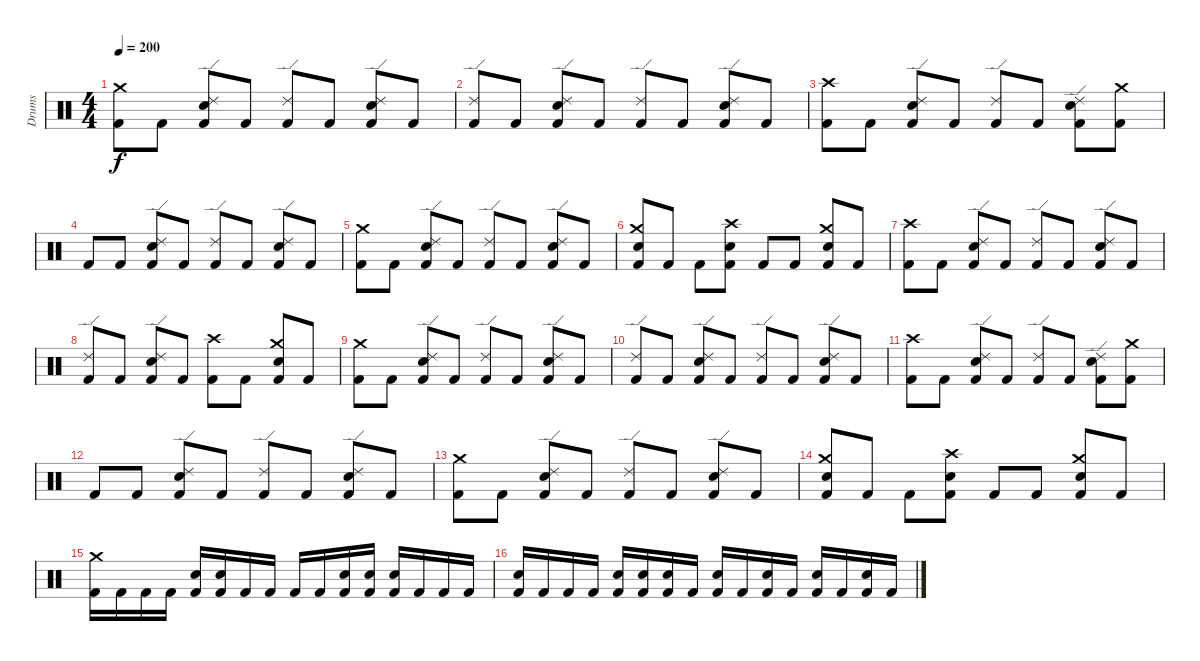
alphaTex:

\track ("Drums" "Drums") {instrument percussion}
\staff {score}
\articulation defaults
\ts (4 4)
\tempo 200
\clef neutral
\ks c
("Kick (hit) 2" "Crash medium (hit)").8{dy f} "Kick (hit) 2".8 ("Kick (hit) 2" "Electric Snare (hit)" "Ride (edge) 2").8 "Kick (hit) 2".8 ("Kick (hit) 2" "Ride (edge) 2").8 "Kick (hit) 2".8 ("Kick (hit) 2" "Electric Snare (hit)" "Ride (edge) 2").8 "Kick (hit) 2".8 |
("Kick (hit) 2" "Ride (edge) 2").8 "Kick (hit) 2".8 ("Kick (hit) 2" "Electric Snare (hit)" "Ride (edge) 2").8 "Kick (hit) 2".8 ("Kick (hit) 2" "Ride (edge) 2").8 "Kick (hit) 2".8 ("Kick (hit) 2" "Electric Snare (hit)" "Ride (edge) 2").8 "Kick (hit) 2".8 |
("Kick (hit) 2" "Crash high (hit)").8 "Kick (hit) 2".8 ("Kick (hit) 2" "Electric Snare (hit)" "Ride (edge) 2").8 "Kick (hit) 2".8 ("Kick (hit) 2" "Ride (edge) 2").8 "Kick (hit) 2".8 ("Kick (hit) 2" "Electric Snare (hit)" "Ride (edge) 2").8 ("Kick (hit) 2" "Crash medium (hit)").8 |
"Kick (hit) 2".8 "Kick (hit) 2".8 ("Kick (hit) 2" "Electric Snare (hit)" "Ride (edge) 2").8 "Kick (hit) 2".8 ("Kick (hit) 2" "Ride (edge) 2").8 "Kick (hit) 2".8 ("Kick (hit) 2" "Electric Snare (hit)" "Ride (edge) 2").8 "Kick (hit) 2".8 |
("Kick (hit) 2" "Crash medium (hit)").8 "Kick (hit) 2".8 ("Kick (hit) 2" "Electric Snare (hit)" "Ride (edge) 2").8 "Kick (hit) 2".8 ("Kick (hit) 2" "Ride (edge) 2").8 "Kick (hit) 2".8 ("Kick (hit) 2" "Electric Snare (hit)" "Ride (edge) 2").8 "Kick (hit) 2".8 |
("Kick (hit) 2" "Electric Snare (hit)" "Crash medium (hit)").8 "Kick (hit) 2".8 "Kick (hit) 2".8 ("Kick (hit) 2" "Electric Snare (hit)" "Crash high (hit)").8 "Kick (hit) 2".8 "Kick (hit) 2".8 ("Kick (hit) 2" "Electric Snare (hit)" "Crash medium (hit)").8 "Kick (hit) 2".8 |
\section ("" "")
("Kick (hit) 2" "Crash high (hit)").8 "Kick (hit) 2".8 ("Kick (hit) 2" "Electric Snare (hit)" "Ride (edge) 2").8 "Kick (hit) 2".8 ("Kick (hit) 2" "Ride (edge) 2").8 "Kick (hit) 2".8 ("Kick (hit) 2" "Electric Snare (hit)" "Ride (edge) 2").8 "Kick (hit) 2".8 |
("Kick (hit) 2" "Ride (edge) 2").8 "Kick (hit) 2".8 ("Kick (hit) 2" "Electric Snare (hit)" "Ride (edge) 2").8 "Kick (hit) 2".8 ("Kick (hit) 2" "Crash high (hit)").8 "Kick (hit) 2".8 ("Kick (hit) 2" "Electric Snare (hit)" "Crash medium (hit)").8 "Kick (hit) 2".8 |
("Kick (hit) 2" "Crash medium (hit)").8 "Kick (hit) 2".8 ("Kick (hit) 2" "Electric Snare (hit)" "Ride (edge) 2").8 "Kick (hit) 2".8 ("Kick (hit) 2" "Ride (edge) 2").8 "Kick (hit) 2".8 ("Kick (hit) 2" "Electric Snare (hit)" "Ride (edge) 2").8 "Kick (hit) 2".8 |
("Kick (hit) 2" "Ride (edge) 2").8 "Kick (hit) 2".8 ("Kick (hit) 2" "Electric Snare (hit)" "Ride (edge) 2").8 "Kick (hit) 2".8 ("Kick (hit) 2" "Ride (edge) 2").8 "Kick (hit) 2".8 ("Kick (hit) 2" "Electric Snare (hit)" "Ride (edge) 2").8 "Kick (hit) 2".8 |
("Kick (hit) 2" "Crash high (hit)").8 "Kick (hit) 2".8 ("Kick (hit) 2" "Electric Snare (hit)" "Ride (edge) 2").8 "Kick (hit) 2".8 ("Kick (hit) 2" "Ride (edge) 2").8 "Kick (hit) 2".8 ("Kick (hit) 2" "Electric Snare (hit)" "Ride (edge) 2").8 ("Kick (hit) 2" "Crash medium (hit)").8 |
"Kick (hit) 2".8 "Kick (hit) 2".8 ("Kick (hit) 2" "Electric Snare (hit)" "Ride (edge) 2").8 "Kick (hit) 2".8 ("Kick (hit) 2" "Ride (edge) 2").8 "Kick (hit) 2".8 ("Kick (hit) 2" "Electric Snare (hit)" "Ride (edge) 2").8 "Kick (hit) 2".8 |
("Kick (hit) 2" "Crash medium (hit)").8 "Kick (hit) 2".8 ("Kick (hit) 2" "Electric Snare (hit)" "Ride (edge) 2").8 "Kick (hit) 2".8 ("Kick (hit) 2" "Ride (edge) 2").8 "Kick (hit) 2".8 ("Kick (hit) 2" "Electric Snare (hit)" "Ride (edge) 2").8 "Kick (hit) 2".8 |
("Kick (hit) 2" "Electric Snare (hit)" "Crash medium (hit)").8 "Kick (hit) 2".8 "Kick (hit) 2".8 ("Kick (hit) 2" "Electric Snare (hit)" "Crash high (hit)").8 "Kick (hit) 2".8 "Kick (hit) 2".8 ("Kick (hit) 2" "Electric Snare (hit)" "Crash medium (hit)").8 "Kick (hit) 2".8 |
("Kick (hit) 2" "Crash medium (hit)").16 "Kick (hit) 2".16 "Kick (hit) 2".16 "Kick (hit) 2".16 ("Kick (hit) 2" "Electric Snare (hit)").16 ("Kick (hit) 2" "Electric Snare (hit)").16 "Kick (hit) 2".16 "Kick (hit) 2".16 "Kick (hit) 2".16 "Kick (hit) 2".16 ("Kick (hit) 2" "Electric Snare (hit)").16 ("Kick (hit) 2" "Electric Snare (hit)").16 ("Kick (hit) 2" "Electric Snare (hit)").16 "Kick (hit) 2".16 "Kick (hit) 2".16 "Kick (hit) 2".16 |
("Kick (hit) 2" "Electric Snare (hit)").16 "Kick (hit) 2".16 "Kick (hit) 2".16 "Kick (hit) 2".16 ("Kick (hit) 2" "Electric Snare (hit)").16 ("Kick (hit) 2" "Electric Snare (hit)").16 ("Kick (hit) 2" "Electric Snare (hit)").16 "Kick (hit) 2".16 ("Kick (hit) 2" "Electric Snare (hit)").16 "Kick (hit) 2".16 ("Kick (hit) 2" "Electric Snare (hit)").16 "Kick (hit) 2".16 ("Kick (hit) 2" "Electric Snare (hit)").16 "Kick (hit) 2".16 ("Kick (hit) 2" "Electric Snare (hit)").16 "Kick (hit) 2".16
